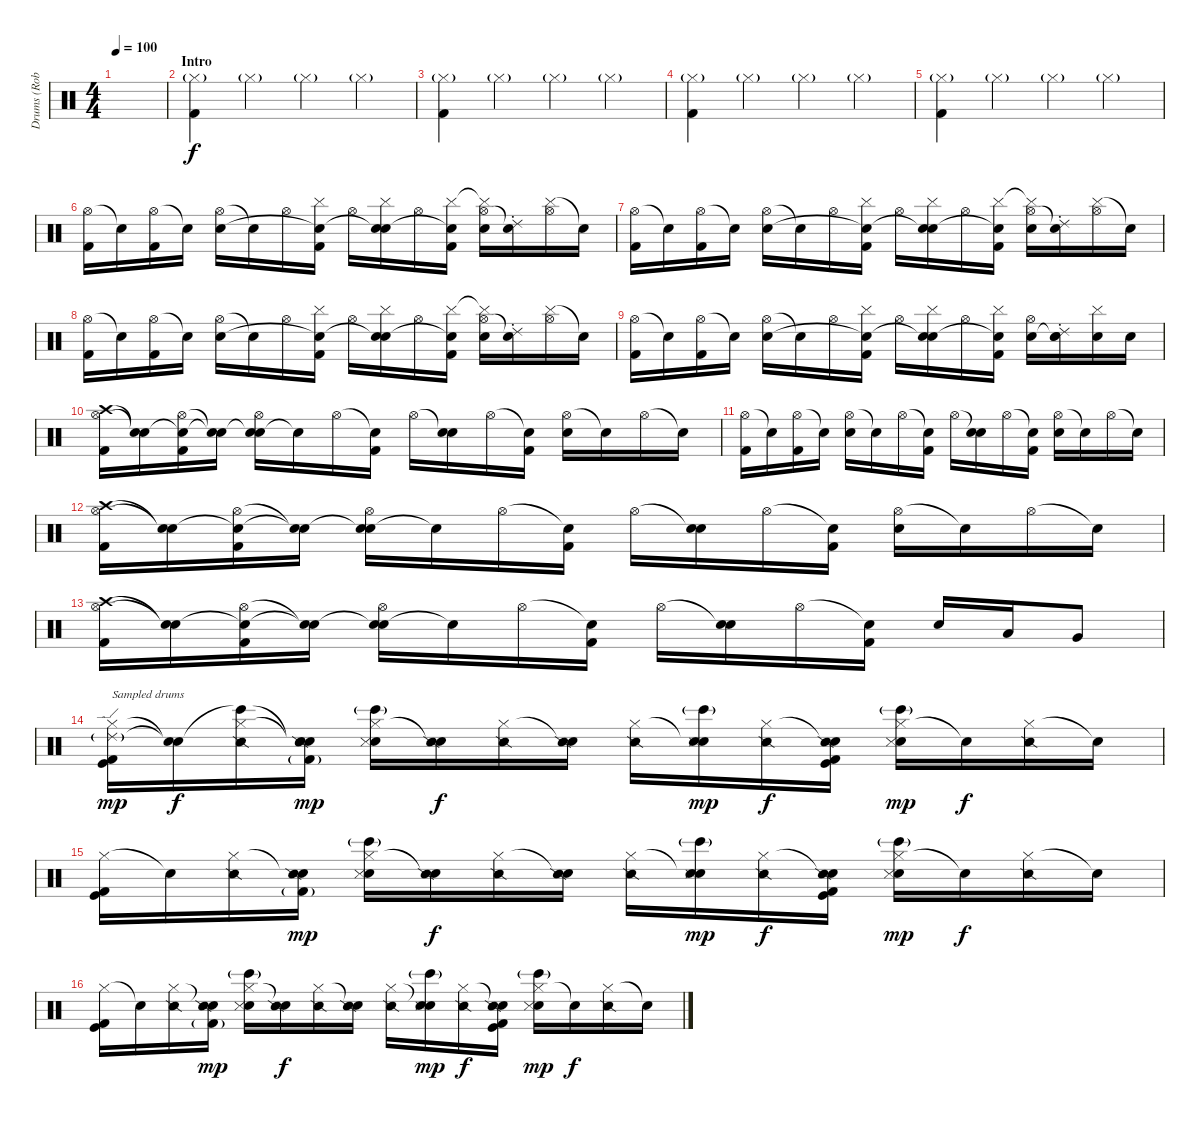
\track ("Drums (Rob Bourdon)" "Drums (Rob") {instrument percussion}
\staff {score}
\articulation defaults
\ts (4 4)
\tempo 100
\clef neutral
\ks c
|
\section ("" "Intro")
("Hi-Hat (closed)"{g} "Kick (hit) 2").4 "Hi-Hat (closed)"{g}.4 "Hi-Hat (closed)"{g}.4 "Hi-Hat (closed)"{g}.4 |
("Hi-Hat (closed)"{g} "Kick (hit) 2").4 "Hi-Hat (closed)"{g}.4 "Hi-Hat (closed)"{g}.4 "Hi-Hat (closed)"{g}.4 |
("Hi-Hat (closed)"{g} "Kick (hit) 2").4 "Hi-Hat (closed)"{g}.4 "Hi-Hat (closed)"{g}.4 "Hi-Hat (closed)"{g}.4 |
("Hi-Hat (closed)"{g} "Kick (hit) 2").4 "Hi-Hat (closed)"{g}.4 "Hi-Hat (closed)"{g}.4 "Hi-Hat (closed)"{g}.4 |
("Hi-Hat (open)" "Kick (hit) 2").16{dy f volume 14} "Snare (hit)"{t}.16 ("Hi-Hat (open)" "Kick (hit) 2").16 "Snare (hit)"{t}.16 ("Hi-Hat (open)" "Electric Snare (hit)").16 "Snare (hit)"{t}.16 "Hi-Hat (open)".16 ("Cymbal (hit)" "Snare (hit)"{t} "Kick (hit) 2").16 "Hi-Hat (open)".16 ("Cymbal (hit)" "Snare (hit)"{t} "Electric Snare (hit)").16 "Hi-Hat (open)".16 ("Cymbal (hit)" "Snare (hit)"{t} "Kick (hit) 2").16 ("Cymbal (hit)"{t} "Hi-Hat (open)" "Electric Snare (hit)").16 ("Ride (choke) 2" "Snare (hit)"{t}).16 ("Cymbal (hit)" "Hi-Hat (open)").16 "Snare (hit)"{t}.16 |
("Hi-Hat (open)" "Kick (hit) 2").16 "Snare (hit)"{t}.16 ("Hi-Hat (open)" "Kick (hit) 2").16 "Snare (hit)"{t}.16 ("Hi-Hat (open)" "Electric Snare (hit)").16 "Snare (hit)"{t}.16 "Hi-Hat (open)".16 ("Cymbal (hit)" "Snare (hit)"{t} "Kick (hit) 2").16 "Hi-Hat (open)".16 ("Cymbal (hit)" "Snare (hit)"{t} "Electric Snare (hit)").16 "Hi-Hat (open)".16 ("Cymbal (hit)" "Snare (hit)"{t} "Kick (hit) 2").16 ("Cymbal (hit)"{t} "Hi-Hat (open)" "Electric Snare (hit)").16 ("Ride (choke) 2" "Snare (hit)"{t}).16 ("Cymbal (hit)" "Hi-Hat (open)").16 "Snare (hit)"{t}.16 |
("Hi-Hat (open)" "Kick (hit) 2").16 "Snare (hit)"{t}.16 ("Hi-Hat (open)" "Kick (hit) 2").16 "Snare (hit)"{t}.16 ("Hi-Hat (open)" "Electric Snare (hit)").16 "Snare (hit)"{t}.16 "Hi-Hat (open)".16 ("Cymbal (hit)" "Snare (hit)"{t} "Kick (hit) 2").16 "Hi-Hat (open)".16 ("Cymbal (hit)" "Snare (hit)"{t} "Electric Snare (hit)").16 "Hi-Hat (open)".16 ("Cymbal (hit)" "Snare (hit)"{t} "Kick (hit) 2").16 ("Cymbal (hit)"{t} "Hi-Hat (open)" "Electric Snare (hit)").16 ("Ride (choke) 2" "Snare (hit)"{t}).16 ("Cymbal (hit)" "Hi-Hat (open)").16 "Snare (hit)"{t}.16 |
("Hi-Hat (open)" "Kick (hit) 2").16 "Snare (hit)"{t}.16 ("Hi-Hat (open)" "Kick (hit) 2").16 "Snare (hit)"{t}.16 ("Hi-Hat (open)" "Electric Snare (hit)").16 "Snare (hit)"{t}.16 "Hi-Hat (open)".16 ("Cymbal (hit)" "Snare (hit)"{t} "Kick (hit) 2").16 "Hi-Hat (open)".16 ("Cymbal (hit)" "Snare (hit)"{t} "Electric Snare (hit)").16 "Hi-Hat (open)".16 ("Cymbal (hit)" "Snare (hit)"{t} "Kick (hit) 2").16 ("Hi-Hat (open)" "Electric Snare (hit)").16 ("Ride (choke) 2" "Snare (hit)"{t} "Electric Snare (hit)").16 ("Cymbal (hit)" "Electric Snare (hit)").16 "Electric Snare (hit)".16 |
("Crash high (hit)" "Hi-Hat (open)" "Kick (hit) 2").16 ("Snare (hit)"{t} "Snare (hit)"{t}).16 ("Snare (hit)"{t} "Hi-Hat (open)" "Kick (hit) 2").16 ("Snare (hit)"{t} "Snare (hit)"{t}).16 ("Snare (hit)"{t} "Hi-Hat (open)" "Electric Snare (hit)").16 "Snare (hit)"{t}.16 "Hi-Hat (open)".16 ("Snare (hit)"{t} "Kick (hit) 2").16 "Hi-Hat (open)".16 ("Snare (hit)"{t} "Electric Snare (hit)").16 "Hi-Hat (open)".16 ("Snare (hit)"{t} "Kick (hit) 2").16 ("Hi-Hat (open)" "Electric Snare (hit)").16 "Snare (hit)"{t}.16 "Hi-Hat (open)".16 "Snare (hit)"{t}.16 |
("Hi-Hat (open)" "Kick (hit) 2").16 "Snare (hit)"{t}.16 ("Hi-Hat (open)" "Kick (hit) 2").16 "Snare (hit)"{t}.16 ("Hi-Hat (open)" "Electric Snare (hit)").16 "Snare (hit)"{t}.16 "Hi-Hat (open)".16 ("Snare (hit)"{t} "Kick (hit) 2").16 "Hi-Hat (open)".16 ("Snare (hit)"{t} "Electric Snare (hit)").16 "Hi-Hat (open)".16 ("Snare (hit)"{t} "Kick (hit) 2").16 ("Hi-Hat (open)" "Electric Snare (hit)").16 "Snare (hit)"{t}.16 "Hi-Hat (open)".16 "Snare (hit)"{t}.16 |
("Crash high (hit)" "Hi-Hat (open)" "Kick (hit) 2").16 ("Snare (hit)"{t} "Snare (hit)"{t}).16 ("Snare (hit)"{t} "Hi-Hat (open)" "Kick (hit) 2").16 ("Snare (hit)"{t} "Snare (hit)"{t}).16 ("Snare (hit)"{t} "Hi-Hat (open)" "Electric Snare (hit)").16 "Snare (hit)"{t}.16 "Hi-Hat (open)".16 ("Snare (hit)"{t} "Kick (hit) 2").16 "Hi-Hat (open)".16 ("Snare (hit)"{t} "Electric Snare (hit)").16 "Hi-Hat (open)".16 ("Snare (hit)"{t} "Kick (hit) 2").16 ("Hi-Hat (open)" "Electric Snare (hit)").16 "Snare (hit)"{t}.16 "Hi-Hat (open)".16 "Snare (hit)"{t}.16 |
("Crash high (hit)" "Hi-Hat (open)" "Kick (hit) 2").16 ("Snare (hit)"{t} "Snare (hit)"{t}).16 ("Snare (hit)"{t} "Hi-Hat (open)" "Kick (hit) 2").16 ("Snare (hit)"{t} "Snare (hit)"{t}).16 ("Snare (hit)"{t} "Hi-Hat (open)" "Electric Snare (hit)").16 "Snare (hit)"{t}.16 "Hi-Hat (open)".16 ("Snare (hit)"{t} "Kick (hit) 2").16 "Hi-Hat (open)".16 ("Snare (hit)"{t} "Electric Snare (hit)").16 "Hi-Hat (open)".16 ("Snare (hit)"{t} "Kick (hit) 2").16 "Electric Snare (hit)".16 "Low Tom (hit)".16 "Very Low Tom (hit)".8 |
("Ride (edge) 2"{g} "Hi-Hat (closed)" "Kick (hit) 2" "Kick (hit)").16{txt "Sampled drums" dy mp volume 10} ("Snare (hit)"{t} "Snare (hit)"{t}).16{dy f} ("Bongo High (hit)"{t} "Hi-Hat (closed)" "Snare (side stick) 2").16 ("Snare (hit)"{t} "Snare (hit)"{t} "Snare (side stick) 2" "Kick (hit) 2"{g}).16{dy mp} ("Hi-Hat (closed)" "Bongo High (hit)"{g} "Electric Snare (hit)" "Snare (side stick) 3").16 ("Snare (hit)"{t} "Snare (side stick) 2").16{dy f} ("Hi-Hat (closed)" "Snare (side stick) 2").16 ("Snare (hit)"{t} "Snare (side stick) 2").16 ("Hi-Hat (closed)" "Snare (side stick) 2").16 ("Snare (hit)"{t} "Bongo High (hit)"{g} "Electric Snare (hit)" "Snare (side stick) 3").16{dy mp} ("Hi-Hat (closed)" "Snare (side stick) 2").16{dy f} ("Snare (hit)"{t} "Snare (side stick) 2" "Kick (hit) 2" "Kick (hit)").16 ("Hi-Hat (closed)" "Bongo High (hit)"{g} "Electric Snare (hit)" "Snare (side stick) 3").16{dy mp} "Snare (hit)"{t}.16{dy f} ("Hi-Hat (closed)" "Snare (side stick) 2").16 "Snare (hit)"{t}.16 |
("Hi-Hat (closed)" "Kick (hit) 2" "Kick (hit)").16{volume 10} "Snare (hit)"{t}.16 ("Hi-Hat (closed)" "Snare (side stick) 2").16 ("Snare (hit)"{t} "Snare (side stick) 2" "Kick (hit) 2"{g}).16{dy mp} ("Hi-Hat (closed)" "Bongo High (hit)"{g} "Electric Snare (hit)" "Snare (side stick) 3").16 ("Snare (hit)"{t} "Snare (side stick) 2").16{dy f} ("Hi-Hat (closed)" "Snare (side stick) 2").16 ("Snare (hit)"{t} "Snare (side stick) 2").16 ("Hi-Hat (closed)" "Snare (side stick) 2").16 ("Snare (hit)"{t} "Bongo High (hit)"{g} "Electric Snare (hit)" "Snare (side stick) 3").16{dy mp} ("Hi-Hat (closed)" "Snare (side stick) 2").16{dy f} ("Snare (hit)"{t} "Snare (side stick) 2" "Kick (hit) 2" "Kick (hit)").16 ("Hi-Hat (closed)" "Bongo High (hit)"{g} "Electric Snare (hit)" "Snare (side stick) 3").16{dy mp} "Snare (hit)"{t}.16{dy f} ("Hi-Hat (closed)" "Snare (side stick) 2").16 "Snare (hit)"{t}.16 |
("Hi-Hat (closed)" "Kick (hit) 2" "Kick (hit)").16{volume 10} "Snare (hit)"{t}.16 ("Hi-Hat (closed)" "Snare (side stick) 2").16 ("Snare (hit)"{t} "Snare (side stick) 2" "Kick (hit) 2"{g}).16{dy mp} ("Hi-Hat (closed)" "Bongo High (hit)"{g} "Electric Snare (hit)" "Snare (side stick) 3").16 ("Snare (hit)"{t} "Snare (side stick) 2").16{dy f} ("Hi-Hat (closed)" "Snare (side stick) 2").16 ("Snare (hit)"{t} "Snare (side stick) 2").16 ("Hi-Hat (closed)" "Snare (side stick) 2").16 ("Snare (hit)"{t} "Bongo High (hit)"{g} "Electric Snare (hit)" "Snare (side stick) 3").16{dy mp} ("Hi-Hat (closed)" "Snare (side stick) 2").16{dy f} ("Snare (hit)"{t} "Snare (side stick) 2" "Kick (hit) 2" "Kick (hit)").16 ("Hi-Hat (closed)" "Bongo High (hit)"{g} "Electric Snare (hit)" "Snare (side stick) 3").16{dy mp} "Snare (hit)"{t}.16{dy f} ("Hi-Hat (closed)" "Snare (side stick) 2").16 "Snare (hit)"{t}.16
